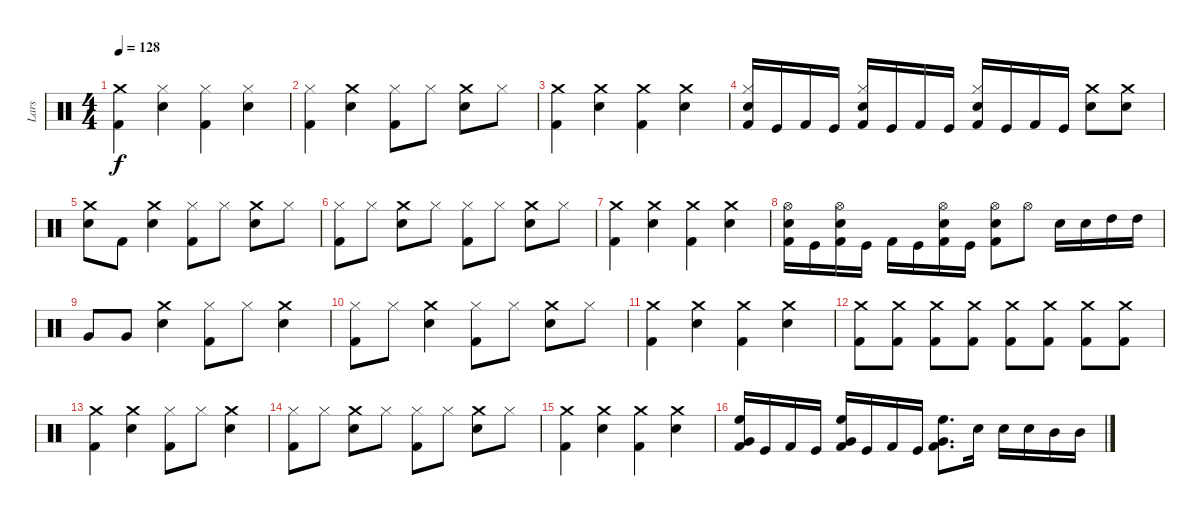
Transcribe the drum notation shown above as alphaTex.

\track ("Lars" "Lars") {instrument percussion}
\staff {score}
\articulation defaults
\ts (4 4)
\tempo 128
\clef neutral
\ks c
("Kick (hit) 2" "Crash medium (hit)").4{dy f} ("Hi-Hat (closed)" "Snare (hit) 2").4 ("Hi-Hat (closed)" "Kick (hit) 2").4 ("Snare (hit) 2" "Hi-Hat (closed)").4 |
("Kick (hit) 2" "Hi-Hat (closed)").4 ("Crash medium (hit)" "Snare (hit) 2").4 ("Hi-Hat (closed)" "Kick (hit) 2").8 "Hi-Hat (closed)".8 ("Crash medium (hit)" "Snare (hit) 2").8 "Hi-Hat (closed)".8 |
("Kick (hit) 2" "Crash medium (hit)").4 ("Snare (hit) 2" "Crash medium (hit)").4 ("Kick (hit) 2" "Crash medium (hit)").4 ("Snare (hit) 2" "Crash medium (hit)").4 |
("Kick (hit) 2" "Snare (hit) 2" "Hi-Hat (closed)").16 "Kick (hit)".16 "Kick (hit) 2".16 "Kick (hit)".16 ("Kick (hit) 2" "Snare (hit) 2" "Hi-Hat (closed)").16 "Kick (hit)".16 "Kick (hit) 2".16 "Kick (hit)".16 ("Kick (hit) 2" "Snare (hit) 2" "Hi-Hat (closed)").16 "Kick (hit)".16 "Kick (hit) 2".16 "Kick (hit)".16 ("Snare (hit) 2" "Crash medium (hit)").8 ("Snare (hit) 2" "Crash medium (hit)").8 |
("Crash medium (hit)" "Snare (hit) 2").8 "Kick (hit) 2".8 ("Crash medium (hit)" "Snare (hit) 2").4 ("Kick (hit) 2" "Hi-Hat (closed)").8 "Hi-Hat (closed)".8 ("Snare (hit) 2" "Crash medium (hit)").8 "Hi-Hat (closed)".8 |
("Hi-Hat (closed)" "Kick (hit) 2").8 "Hi-Hat (closed)".8 ("Crash medium (hit)" "Snare (hit) 2").8 "Hi-Hat (closed)".8 ("Hi-Hat (closed)" "Kick (hit) 2").8 "Hi-Hat (closed)".8 ("Crash medium (hit)" "Snare (hit) 2").8 "Hi-Hat (closed)".8 |
("Crash medium (hit)" "Kick (hit) 2").4 ("Crash medium (hit)" "Snare (hit) 2").4 ("Crash medium (hit)" "Kick (hit) 2").4 ("Snare (hit) 2" "Crash medium (hit)").4 |
("Hi-Hat (open)" "Snare (hit) 2" "Kick (hit) 2").16 "Kick (hit)".16 ("Hi-Hat (open)" "Snare (hit) 2" "Kick (hit) 2").16 "Kick (hit)".16 "Kick (hit) 2".16 "Kick (hit)".16 ("Hi-Hat (open)" "Snare (hit) 2" "Kick (hit) 2").16 "Kick (hit)".16 ("Hi-Hat (open)" "Snare (hit) 2" "Kick (hit) 2").8 "Hi-Hat (open)".8 "Snare (hit) 2".16 "Snare (hit) 2".16 "High Tom (hit)".16 "High Tom (hit)".16 |
"Very Low Tom (hit)".8 "Very Low Tom (hit)".8 ("Crash medium (hit)" "Snare (hit) 2").4 ("Kick (hit) 2" "Hi-Hat (closed)").8 "Hi-Hat (closed)".8 ("Crash medium (hit)" "Snare (hit) 2").4 |
("Hi-Hat (closed)" "Kick (hit) 2").8 "Hi-Hat (closed)".8 ("Crash medium (hit)" "Snare (hit) 2").4 ("Hi-Hat (closed)" "Kick (hit) 2").8 "Hi-Hat (closed)".8 ("Crash medium (hit)" "Snare (hit) 2").8 "Hi-Hat (closed)".8 |
("Crash medium (hit)" "Kick (hit) 2").4 ("Crash medium (hit)" "Snare (hit) 2").4 ("Crash medium (hit)" "Kick (hit) 2").4 ("Crash medium (hit)" "Snare (hit) 2").4 |
("Kick (hit) 2" "Crash medium (hit)").8 ("Kick (hit) 2" "Crash medium (hit)").8 ("Kick (hit) 2" "Crash medium (hit)").8 ("Kick (hit) 2" "Crash medium (hit)").8 ("Kick (hit) 2" "Crash medium (hit)").8 ("Kick (hit) 2" "Crash medium (hit)").8 ("Kick (hit) 2" "Crash medium (hit)").8 ("Kick (hit) 2" "Crash medium (hit)").8 |
("Kick (hit) 2" "Crash medium (hit)").4 ("Snare (hit) 2" "Crash medium (hit)").4 ("Hi-Hat (closed)" "Kick (hit) 2").8 "Hi-Hat (closed)".8 ("Snare (hit) 2" "Crash medium (hit)").4 |
("Kick (hit) 2" "Hi-Hat (closed)").8 "Hi-Hat (closed)".8 ("Crash medium (hit)" "Snare (hit) 2").8 "Hi-Hat (closed)".8 ("Kick (hit) 2" "Hi-Hat (closed)").8 "Hi-Hat (closed)".8 ("Crash medium (hit)" "Snare (hit) 2").8 "Hi-Hat (closed)".8 |
("Crash medium (hit)" "Kick (hit) 2").4 ("Crash medium (hit)" "Snare (hit) 2").4 ("Crash medium (hit)" "Kick (hit) 2").4 ("Crash medium (hit)" "Snare (hit) 2").4 |
("Kick (hit) 2" "High Floor Tom (hit)" "Very Low Tom (hit)").16 "Kick (hit)".16 "Kick (hit) 2".16 "Kick (hit)".16 ("Kick (hit) 2" "High Floor Tom (hit)" "Very Low Tom (hit)").16 "Kick (hit)".16 "Kick (hit) 2".16 "Kick (hit)".16 ("High Floor Tom (hit)" "Very Low Tom (hit)" "Kick (hit) 2").8{d} "Snare (hit) 2".16 "Snare (hit) 2".16 "Snare (hit) 2".16 "Mid Tom (hit)".16 "Mid Tom (hit)".16
